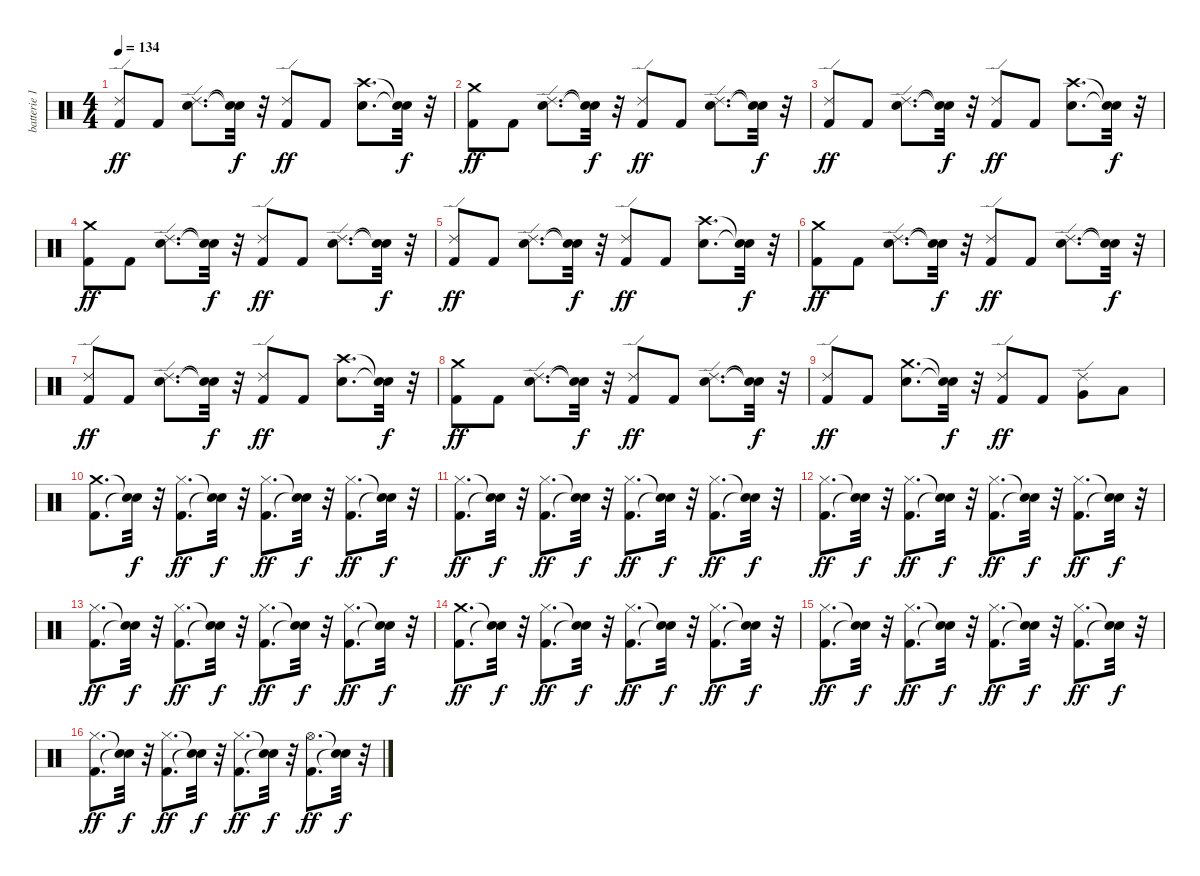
\track ("batterie 1" "batterie 1") {instrument percussion}
\staff {score}
\articulation defaults
\ts (4 4)
\tempo 134
\clef neutral
\ks c
("Kick (hit) 2" "Ride (edge) 2").8{dy ff} "Kick (hit) 2".8 ("Electric Snare (hit)" "Ride (edge) 2").8{d} ("Snare (hit)"{t} "Snare (hit)"{t}).32{dy f} r.32 ("Kick (hit) 2" "Ride (edge) 2").8{dy ff} "Kick (hit) 2".8 ("Electric Snare (hit)" "Crash high (hit)").8{d} ("Snare (hit)"{t} "Snare (hit)"{t}).32{dy f} r.32 |
("Kick (hit) 2" "Crash medium (hit)").8{dy ff} "Kick (hit) 2".8 ("Electric Snare (hit)" "Ride (edge) 2").8{d} ("Snare (hit)"{t} "Snare (hit)"{t}).32{dy f} r.32 ("Kick (hit) 2" "Ride (edge) 2").8{dy ff} "Kick (hit) 2".8 ("Electric Snare (hit)" "Ride (edge) 2").8{d} ("Snare (hit)"{t} "Snare (hit)"{t}).32{dy f} r.32 |
("Kick (hit) 2" "Ride (edge) 2").8{dy ff} "Kick (hit) 2".8 ("Electric Snare (hit)" "Ride (edge) 2").8{d} ("Snare (hit)"{t} "Snare (hit)"{t}).32{dy f} r.32 ("Kick (hit) 2" "Ride (edge) 2").8{dy ff} "Kick (hit) 2".8 ("Electric Snare (hit)" "Crash high (hit)").8{d} ("Snare (hit)"{t} "Snare (hit)"{t}).32{dy f} r.32 |
("Kick (hit) 2" "Crash medium (hit)").8{dy ff} "Kick (hit) 2".8 ("Electric Snare (hit)" "Ride (edge) 2").8{d} ("Snare (hit)"{t} "Snare (hit)"{t}).32{dy f} r.32 ("Kick (hit) 2" "Ride (edge) 2").8{dy ff} "Kick (hit) 2".8 ("Electric Snare (hit)" "Ride (edge) 2").8{d} ("Snare (hit)"{t} "Snare (hit)"{t}).32{dy f} r.32 |
("Kick (hit) 2" "Ride (edge) 2").8{dy ff} "Kick (hit) 2".8 ("Electric Snare (hit)" "Ride (edge) 2").8{d} ("Snare (hit)"{t} "Snare (hit)"{t}).32{dy f} r.32 ("Kick (hit) 2" "Ride (edge) 2").8{dy ff} "Kick (hit) 2".8 ("Electric Snare (hit)" "Crash high (hit)").8{d} ("Snare (hit)"{t} "Snare (hit)"{t}).32{dy f} r.32 |
("Kick (hit) 2" "Crash medium (hit)").8{dy ff} "Kick (hit) 2".8 ("Electric Snare (hit)" "Ride (edge) 2").8{d} ("Snare (hit)"{t} "Snare (hit)"{t}).32{dy f} r.32 ("Kick (hit) 2" "Ride (edge) 2").8{dy ff} "Kick (hit) 2".8 ("Electric Snare (hit)" "Ride (edge) 2").8{d} ("Snare (hit)"{t} "Snare (hit)"{t}).32{dy f} r.32 |
("Kick (hit) 2" "Ride (edge) 2").8{dy ff} "Kick (hit) 2".8 ("Electric Snare (hit)" "Ride (edge) 2").8{d} ("Snare (hit)"{t} "Snare (hit)"{t}).32{dy f} r.32 ("Kick (hit) 2" "Ride (edge) 2").8{dy ff} "Kick (hit) 2".8 ("Electric Snare (hit)" "Crash high (hit)").8{d} ("Snare (hit)"{t} "Snare (hit)"{t}).32{dy f} r.32 |
("Kick (hit) 2" "Crash medium (hit)").8{dy ff} "Kick (hit) 2".8 ("Electric Snare (hit)" "Ride (edge) 2").8{d} ("Snare (hit)"{t} "Snare (hit)"{t}).32{dy f} r.32 ("Kick (hit) 2" "Ride (edge) 2").8{dy ff} "Kick (hit) 2".8 ("Electric Snare (hit)" "Ride (edge) 2").8{d} ("Snare (hit)"{t} "Snare (hit)"{t}).32{dy f} r.32 |
("Kick (hit) 2" "Ride (edge) 2").8{dy ff} "Kick (hit) 2".8 ("Electric Snare (hit)" "Crash medium (hit)").8{d} ("Snare (hit)"{t} "Snare (hit)"{t}).32{dy f} r.32 ("Kick (hit) 2" "Ride (edge) 2").8{dy ff} "Kick (hit) 2".8 ("Very Low Tom (hit)" "Ride (edge) 2").8 "Low Floor Tom (hit)".8 |
("Kick (hit) 2" "Crash medium (hit)").8{d} ("Snare (hit)"{t} "Snare (hit)"{t}).32{dy f} r.32 ("Kick (hit) 2" "Hi-Hat (closed)").8{d dy ff} ("Snare (hit)"{t} "Snare (hit)"{t}).32{dy f} r.32 ("Kick (hit) 2" "Hi-Hat (closed)").8{d dy ff} ("Snare (hit)"{t} "Snare (hit)"{t}).32{dy f} r.32 ("Kick (hit) 2" "Hi-Hat (closed)").8{d dy ff} ("Snare (hit)"{t} "Snare (hit)"{t}).32{dy f} r.32 |
("Kick (hit) 2" "Hi-Hat (closed)").8{d dy ff} ("Snare (hit)"{t} "Snare (hit)"{t}).32{dy f} r.32 ("Kick (hit) 2" "Hi-Hat (closed)").8{d dy ff} ("Snare (hit)"{t} "Snare (hit)"{t}).32{dy f} r.32 ("Kick (hit) 2" "Hi-Hat (closed)").8{d dy ff} ("Snare (hit)"{t} "Snare (hit)"{t}).32{dy f} r.32 ("Kick (hit) 2" "Hi-Hat (closed)").8{d dy ff} ("Snare (hit)"{t} "Snare (hit)"{t}).32{dy f} r.32 |
("Kick (hit) 2" "Hi-Hat (closed)").8{d dy ff} ("Snare (hit)"{t} "Snare (hit)"{t}).32{dy f} r.32 ("Kick (hit) 2" "Hi-Hat (closed)").8{d dy ff} ("Snare (hit)"{t} "Snare (hit)"{t}).32{dy f} r.32 ("Kick (hit) 2" "Hi-Hat (closed)").8{d dy ff} ("Snare (hit)"{t} "Snare (hit)"{t}).32{dy f} r.32 ("Kick (hit) 2" "Hi-Hat (closed)").8{d dy ff} ("Snare (hit)"{t} "Snare (hit)"{t}).32{dy f} r.32 |
("Kick (hit) 2" "Hi-Hat (closed)").8{d dy ff} ("Snare (hit)"{t} "Snare (hit)"{t}).32{dy f} r.32 ("Kick (hit) 2" "Hi-Hat (closed)").8{d dy ff} ("Snare (hit)"{t} "Snare (hit)"{t}).32{dy f} r.32 ("Kick (hit) 2" "Hi-Hat (closed)").8{d dy ff} ("Snare (hit)"{t} "Snare (hit)"{t}).32{dy f} r.32 ("Kick (hit) 2" "Hi-Hat (closed)").8{d dy ff} ("Snare (hit)"{t} "Snare (hit)"{t}).32{dy f} r.32 |
("Kick (hit) 2" "Crash medium (hit)").8{d dy ff} ("Snare (hit)"{t} "Snare (hit)"{t}).32{dy f} r.32 ("Kick (hit) 2" "Hi-Hat (closed)").8{d dy ff} ("Snare (hit)"{t} "Snare (hit)"{t}).32{dy f} r.32 ("Kick (hit) 2" "Hi-Hat (closed)").8{d dy ff} ("Snare (hit)"{t} "Snare (hit)"{t}).32{dy f} r.32 ("Kick (hit) 2" "Hi-Hat (closed)").8{d dy ff} ("Snare (hit)"{t} "Snare (hit)"{t}).32{dy f} r.32 |
("Kick (hit) 2" "Hi-Hat (closed)").8{d dy ff} ("Snare (hit)"{t} "Snare (hit)"{t}).32{dy f} r.32 ("Kick (hit) 2" "Hi-Hat (closed)").8{d dy ff} ("Snare (hit)"{t} "Snare (hit)"{t}).32{dy f} r.32 ("Kick (hit) 2" "Hi-Hat (closed)").8{d dy ff} ("Snare (hit)"{t} "Snare (hit)"{t}).32{dy f} r.32 ("Kick (hit) 2" "Hi-Hat (closed)").8{d dy ff} ("Snare (hit)"{t} "Snare (hit)"{t}).32{dy f} r.32 |
("Kick (hit) 2" "Hi-Hat (closed)").8{d dy ff} ("Snare (hit)"{t} "Snare (hit)"{t}).32{dy f} r.32 ("Kick (hit) 2" "Hi-Hat (closed)").8{d dy ff} ("Snare (hit)"{t} "Snare (hit)"{t}).32{dy f} r.32 ("Kick (hit) 2" "Hi-Hat (closed)").8{d dy ff} ("Snare (hit)"{t} "Snare (hit)"{t}).32{dy f} r.32 ("Kick (hit) 2" "Hi-Hat (open)").8{d dy ff} ("Snare (hit)"{t} "Snare (hit)"{t}).32{dy f} r.32
